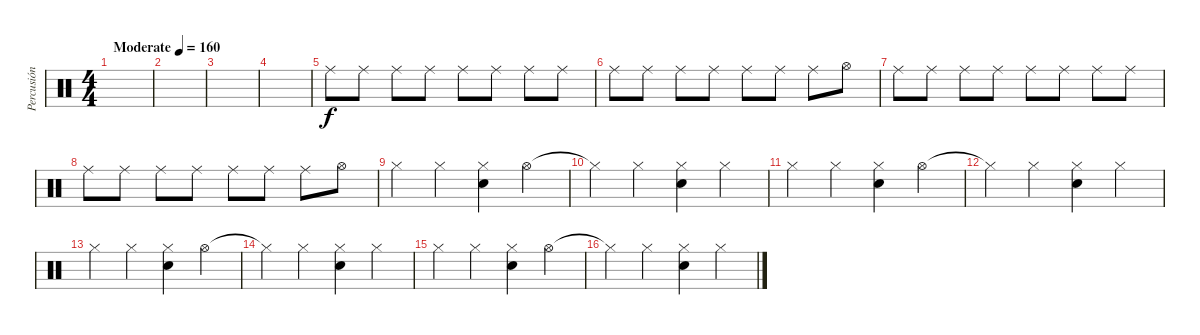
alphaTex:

\track ("Percusión" "Percusión") {instrument percussion}
\staff {score}
\articulation defaults
\ts (4 4)
\tempo (160 "Moderate")
\clef neutral
\ks c
|
|
|
|
"Ride (middle)".8 "Ride (middle)".8 "Ride (middle)".8 "Ride (middle)".8 "Ride (middle)".8 "Ride (middle)".8 "Ride (middle)".8 "Ride (middle)".8 |
"Ride (middle)".8 "Ride (middle)".8 "Ride (middle)".8 "Ride (middle)".8 "Ride (middle)".8 "Ride (middle)".8 "Ride (middle)".8 "Hi-Hat (open)".8 |
"Ride (middle)".8 "Ride (middle)".8 "Ride (middle)".8 "Ride (middle)".8 "Ride (middle)".8 "Ride (middle)".8 "Ride (middle)".8 "Ride (middle)".8 |
"Ride (middle)".8 "Ride (middle)".8 "Ride (middle)".8 "Ride (middle)".8 "Ride (middle)".8 "Ride (middle)".8 "Ride (middle)".8 "Hi-Hat (open)".8 |
"Hi-Hat (closed)".4 "Hi-Hat (closed)".4 ("Electric Snare (hit)" "Hi-Hat (closed)").4 "Hi-Hat (open)".4 |
"Hi-Hat (closed)"{t}.4 "Hi-Hat (closed)".4 ("Electric Snare (hit)" "Hi-Hat (closed)").4 "Hi-Hat (closed)".4 |
"Hi-Hat (closed)".4 "Hi-Hat (closed)".4 ("Electric Snare (hit)" "Hi-Hat (closed)").4 "Hi-Hat (open)".4 |
"Hi-Hat (closed)"{t}.4 "Hi-Hat (closed)".4 ("Electric Snare (hit)" "Hi-Hat (closed)").4 "Hi-Hat (closed)".4 |
"Hi-Hat (closed)".4 "Hi-Hat (closed)".4 ("Electric Snare (hit)" "Hi-Hat (closed)").4 "Hi-Hat (open)".4 |
"Hi-Hat (closed)"{t}.4 "Hi-Hat (closed)".4 ("Electric Snare (hit)" "Hi-Hat (closed)").4 "Hi-Hat (closed)".4 |
"Hi-Hat (closed)".4 "Hi-Hat (closed)".4 ("Electric Snare (hit)" "Hi-Hat (closed)").4 "Hi-Hat (open)".4 |
"Hi-Hat (closed)"{t}.4 "Hi-Hat (closed)".4 ("Electric Snare (hit)" "Hi-Hat (closed)").4 "Hi-Hat (closed)".4
